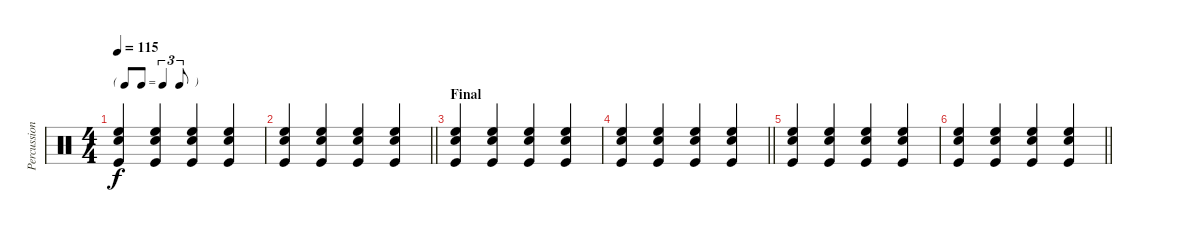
\track ("Percussions" "Percussion") {instrument percussion}
\staff {score}
\articulation defaults
\ts (4 4)
\tf triplet8th
\tempo 115
\clef neutral
\ks c
("High Floor Tom (hit)" "Snare (hit) 2" "Kick (hit)").4{dy f} ("High Floor Tom (hit)" "Snare (hit) 2" "Kick (hit)").4 ("High Floor Tom (hit)" "Snare (hit) 2" "Kick (hit)").4 ("High Floor Tom (hit)" "Snare (hit) 2" "Kick (hit)").4 |
\barLineRight lightlight
("High Floor Tom (hit)" "Snare (hit) 2" "Kick (hit)").4 ("High Floor Tom (hit)" "Snare (hit) 2" "Kick (hit)").4 ("High Floor Tom (hit)" "Snare (hit) 2" "Kick (hit)").4 ("High Floor Tom (hit)" "Snare (hit) 2" "Kick (hit)").4 |
\section ("" "Final")
("High Floor Tom (hit)" "Snare (hit) 2" "Kick (hit)").4 ("High Floor Tom (hit)" "Snare (hit) 2" "Kick (hit)").4 ("High Floor Tom (hit)" "Snare (hit) 2" "Kick (hit)").4 ("High Floor Tom (hit)" "Snare (hit) 2" "Kick (hit)").4 |
\barLineRight lightlight
("High Floor Tom (hit)" "Snare (hit) 2" "Kick (hit)").4 ("High Floor Tom (hit)" "Snare (hit) 2" "Kick (hit)").4 ("High Floor Tom (hit)" "Snare (hit) 2" "Kick (hit)").4 ("High Floor Tom (hit)" "Snare (hit) 2" "Kick (hit)").4 |
("High Floor Tom (hit)" "Snare (hit) 2" "Kick (hit)").4 ("High Floor Tom (hit)" "Snare (hit) 2" "Kick (hit)").4 ("High Floor Tom (hit)" "Snare (hit) 2" "Kick (hit)").4 ("High Floor Tom (hit)" "Snare (hit) 2" "Kick (hit)").4 |
\barLineRight lightlight
("High Floor Tom (hit)" "Snare (hit) 2" "Kick (hit)").4 ("High Floor Tom (hit)" "Snare (hit) 2" "Kick (hit)").4 ("High Floor Tom (hit)" "Snare (hit) 2" "Kick (hit)").4 ("High Floor Tom (hit)" "Snare (hit) 2" "Kick (hit)").4
